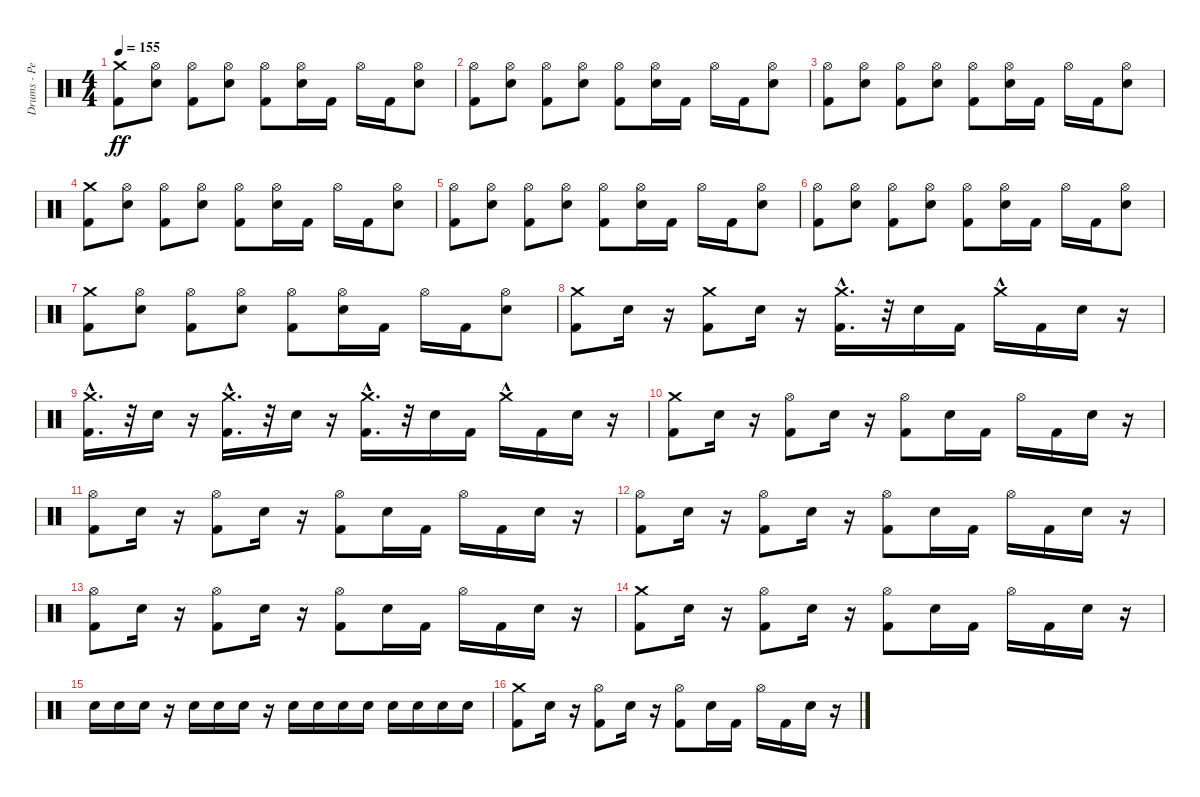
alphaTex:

\track ("Drums - Pete Finestone" "Drums - Pe") {instrument percussion}
\staff {score}
\articulation defaults
\ts (4 4)
\tempo 155
\clef neutral
\ks c
("Crash medium (hit)" "Kick (hit) 2").8{dy ff} ("Electric Snare (hit)" "Hi-Hat (open)").8 ("Hi-Hat (open)" "Kick (hit) 2").8 ("Electric Snare (hit)" "Hi-Hat (open)").8 ("Hi-Hat (open)" "Kick (hit) 2").8 ("Electric Snare (hit)" "Hi-Hat (open)").16 "Kick (hit) 2".16 "Hi-Hat (open)".16 "Kick (hit) 2".16 ("Electric Snare (hit)" "Hi-Hat (open)").8 |
("Hi-Hat (open)" "Kick (hit) 2").8 ("Electric Snare (hit)" "Hi-Hat (open)").8 ("Kick (hit) 2" "Hi-Hat (open)").8 ("Electric Snare (hit)" "Hi-Hat (open)").8 ("Kick (hit) 2" "Hi-Hat (open)").8 ("Electric Snare (hit)" "Hi-Hat (open)").16 "Kick (hit) 2".16 "Hi-Hat (open)".16 "Kick (hit) 2".16 ("Electric Snare (hit)" "Hi-Hat (open)").8 |
("Hi-Hat (open)" "Kick (hit) 2").8 ("Hi-Hat (open)" "Electric Snare (hit)").8 ("Hi-Hat (open)" "Kick (hit) 2").8 ("Hi-Hat (open)" "Electric Snare (hit)").8 ("Hi-Hat (open)" "Kick (hit) 2").8 ("Hi-Hat (open)" "Electric Snare (hit)").16 "Kick (hit) 2".16 "Hi-Hat (open)".16 "Kick (hit) 2".16 ("Hi-Hat (open)" "Electric Snare (hit)").8 |
("Crash medium (hit)" "Kick (hit) 2").8 ("Electric Snare (hit)" "Hi-Hat (open)").8 ("Kick (hit) 2" "Hi-Hat (open)").8 ("Electric Snare (hit)" "Hi-Hat (open)").8 ("Kick (hit) 2" "Hi-Hat (open)").8 ("Electric Snare (hit)" "Hi-Hat (open)").16 "Kick (hit) 2".16 "Hi-Hat (open)".16 "Kick (hit) 2".16 ("Electric Snare (hit)" "Hi-Hat (open)").8 |
("Kick (hit) 2" "Hi-Hat (open)").8 ("Electric Snare (hit)" "Hi-Hat (open)").8 ("Hi-Hat (open)" "Kick (hit) 2").8 ("Electric Snare (hit)" "Hi-Hat (open)").8 ("Hi-Hat (open)" "Kick (hit) 2").8 ("Electric Snare (hit)" "Hi-Hat (open)").16 "Kick (hit) 2".16 "Hi-Hat (open)".16 "Kick (hit) 2".16 ("Electric Snare (hit)" "Hi-Hat (open)").8 |
("Hi-Hat (open)" "Kick (hit) 2").8 ("Electric Snare (hit)" "Hi-Hat (open)").8 ("Kick (hit) 2" "Hi-Hat (open)").8 ("Electric Snare (hit)" "Hi-Hat (open)").8 ("Kick (hit) 2" "Hi-Hat (open)").8 ("Electric Snare (hit)" "Hi-Hat (open)").16 "Kick (hit) 2".16 "Hi-Hat (open)".16 "Kick (hit) 2".16 ("Electric Snare (hit)" "Hi-Hat (open)").8 |
("Kick (hit) 2" "Crash medium (hit)").8 ("Hi-Hat (open)" "Electric Snare (hit)").8 ("Hi-Hat (open)" "Kick (hit) 2").8 ("Hi-Hat (open)" "Electric Snare (hit)").8 ("Hi-Hat (open)" "Kick (hit) 2").8 ("Hi-Hat (open)" "Electric Snare (hit)").16 "Kick (hit) 2".16 "Hi-Hat (open)".16 "Kick (hit) 2".16 ("Electric Snare (hit)" "Hi-Hat (open)").8 |
("Kick (hit) 2" "Crash medium (hit)").8 "Electric Snare (hit)".16 r.16 ("Kick (hit) 2" "Crash medium (hit)").8 "Electric Snare (hit)".16 r.16 ("Kick (hit) 2" "Crash medium (hit)"{hac}).16{d} r.32 "Electric Snare (hit)".16 "Kick (hit) 2".16 "Crash medium (hit)"{hac}.16 "Kick (hit) 2".16 "Electric Snare (hit)".16 r.16 |
("Crash medium (hit)"{hac} "Kick (hit) 2").16{d} r.32 "Electric Snare (hit)".16 r.16 ("Crash medium (hit)"{hac} "Kick (hit) 2").16{d} r.32 "Electric Snare (hit)".16 r.16 ("Crash medium (hit)"{hac} "Kick (hit) 2").16{d} r.32 "Electric Snare (hit)".16 "Kick (hit) 2".16 "Crash medium (hit)"{hac}.16 "Kick (hit) 2".16 "Electric Snare (hit)".16 r.16 |
("Crash medium (hit)" "Kick (hit) 2").8 "Electric Snare (hit)".16 r.16 ("Hi-Hat (open)" "Kick (hit) 2").8 "Electric Snare (hit)".16 r.16 ("Hi-Hat (open)" "Kick (hit) 2").8 "Electric Snare (hit)".16 "Kick (hit) 2".16 "Hi-Hat (open)".16 "Kick (hit) 2".16 "Electric Snare (hit)".16 r.16 |
("Hi-Hat (open)" "Kick (hit) 2").8 "Electric Snare (hit)".16 r.16 ("Hi-Hat (open)" "Kick (hit) 2").8 "Electric Snare (hit)".16 r.16 ("Hi-Hat (open)" "Kick (hit) 2").8 "Electric Snare (hit)".16 "Kick (hit) 2".16 "Hi-Hat (open)".16 "Kick (hit) 2".16 "Electric Snare (hit)".16 r.16 |
("Hi-Hat (open)" "Kick (hit) 2").8 "Electric Snare (hit)".16 r.16 ("Hi-Hat (open)" "Kick (hit) 2").8 "Electric Snare (hit)".16 r.16 ("Hi-Hat (open)" "Kick (hit) 2").8 "Electric Snare (hit)".16 "Kick (hit) 2".16 "Hi-Hat (open)".16 "Kick (hit) 2".16 "Electric Snare (hit)".16 r.16 |
("Hi-Hat (open)" "Kick (hit) 2").8 "Electric Snare (hit)".16 r.16 ("Hi-Hat (open)" "Kick (hit) 2").8 "Electric Snare (hit)".16 r.16 ("Hi-Hat (open)" "Kick (hit) 2").8 "Electric Snare (hit)".16 "Kick (hit) 2".16 "Hi-Hat (open)".16 "Kick (hit) 2".16 "Electric Snare (hit)".16 r.16 |
("Crash medium (hit)" "Kick (hit) 2").8 "Electric Snare (hit)".16 r.16 ("Hi-Hat (open)" "Kick (hit) 2").8 "Electric Snare (hit)".16 r.16 ("Hi-Hat (open)" "Kick (hit) 2").8 "Electric Snare (hit)".16 "Kick (hit) 2".16 "Hi-Hat (open)".16 "Kick (hit) 2".16 "Electric Snare (hit)".16 r.16 |
"Electric Snare (hit)".16 "Electric Snare (hit)".16 "Electric Snare (hit)".16 r.16 "Electric Snare (hit)".16 "Electric Snare (hit)".16 "Electric Snare (hit)".16 r.16 "Electric Snare (hit)".16 "Electric Snare (hit)".16 "Electric Snare (hit)".16 "Electric Snare (hit)".16 "Electric Snare (hit)".16 "Electric Snare (hit)".16 "Electric Snare (hit)".16 "Electric Snare (hit)".16 |
("Crash medium (hit)" "Kick (hit) 2").8 "Electric Snare (hit)".16 r.16 ("Hi-Hat (open)" "Kick (hit) 2").8 "Electric Snare (hit)".16 r.16 ("Hi-Hat (open)" "Kick (hit) 2").8 "Electric Snare (hit)".16 "Kick (hit) 2".16 "Hi-Hat (open)".16 "Kick (hit) 2".16 "Electric Snare (hit)".16 r.16
